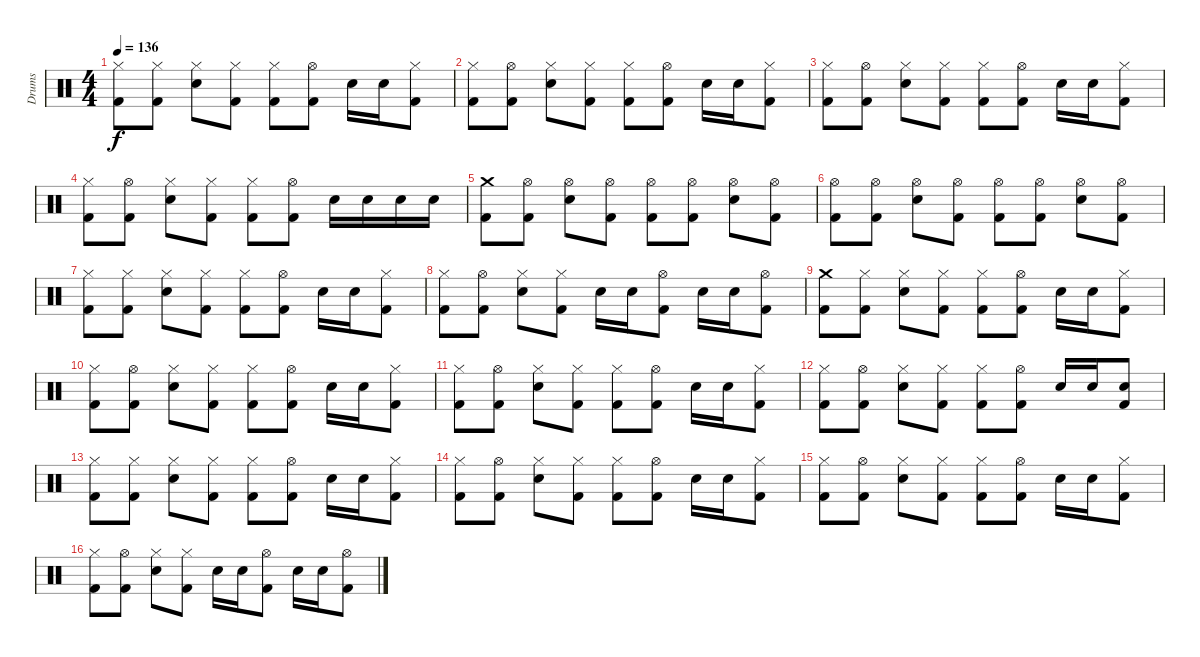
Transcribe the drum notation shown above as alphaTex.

\track ("Drums" "Drums") {instrument percussion}
\staff {score}
\articulation defaults
\ts (4 4)
\tempo 136
\clef neutral
\ks c
("Hi-Hat (closed)" "Kick (hit) 2").8{dy f} ("Hi-Hat (closed)" "Kick (hit) 2").8 ("Hi-Hat (closed)" "Electric Snare (hit)").8 ("Hi-Hat (closed)" "Kick (hit) 2").8 ("Hi-Hat (closed)" "Kick (hit) 2").8 ("Hi-Hat (open)" "Kick (hit) 2").8 "Electric Snare (hit)".16 "Electric Snare (hit)".16 ("Hi-Hat (closed)" "Kick (hit) 2").8 |
("Hi-Hat (closed)" "Kick (hit) 2").8 ("Hi-Hat (open)" "Kick (hit) 2").8 ("Hi-Hat (closed)" "Electric Snare (hit)").8 ("Hi-Hat (closed)" "Kick (hit) 2").8 ("Hi-Hat (closed)" "Kick (hit) 2").8 ("Hi-Hat (open)" "Kick (hit) 2").8 "Electric Snare (hit)".16 "Electric Snare (hit)".16 ("Hi-Hat (closed)" "Kick (hit) 2").8 |
("Hi-Hat (closed)" "Kick (hit) 2").8 ("Hi-Hat (open)" "Kick (hit) 2").8 ("Hi-Hat (closed)" "Electric Snare (hit)").8 ("Hi-Hat (closed)" "Kick (hit) 2").8 ("Hi-Hat (closed)" "Kick (hit) 2").8 ("Hi-Hat (open)" "Kick (hit) 2").8 "Electric Snare (hit)".16 "Electric Snare (hit)".16 ("Hi-Hat (closed)" "Kick (hit) 2").8 |
("Hi-Hat (closed)" "Kick (hit) 2").8 ("Hi-Hat (open)" "Kick (hit) 2").8 ("Hi-Hat (closed)" "Electric Snare (hit)").8 ("Hi-Hat (closed)" "Kick (hit) 2").8 ("Hi-Hat (closed)" "Kick (hit) 2").8 ("Hi-Hat (open)" "Kick (hit) 2").8 "Electric Snare (hit)".16 "Electric Snare (hit)".16 "Electric Snare (hit)".16 "Electric Snare (hit)".16 |
("Crash medium (hit)" "Kick (hit) 2").8 ("Hi-Hat (open)" "Kick (hit) 2").8 ("Hi-Hat (open)" "Electric Snare (hit)").8 ("Hi-Hat (open)" "Kick (hit) 2").8 ("Hi-Hat (open)" "Kick (hit) 2").8 ("Hi-Hat (open)" "Kick (hit) 2").8 ("Hi-Hat (open)" "Electric Snare (hit)").8 ("Hi-Hat (open)" "Kick (hit) 2").8 |
("Hi-Hat (open)" "Kick (hit) 2").8 ("Hi-Hat (open)" "Kick (hit) 2").8 ("Hi-Hat (open)" "Electric Snare (hit)").8 ("Hi-Hat (open)" "Kick (hit) 2").8 ("Hi-Hat (open)" "Kick (hit) 2").8 ("Hi-Hat (open)" "Kick (hit) 2").8 ("Hi-Hat (open)" "Electric Snare (hit)").8 ("Hi-Hat (open)" "Kick (hit) 2").8 |
("Hi-Hat (closed)" "Kick (hit) 2").8 ("Hi-Hat (closed)" "Kick (hit) 2").8 ("Hi-Hat (closed)" "Electric Snare (hit)").8 ("Hi-Hat (closed)" "Kick (hit) 2").8 ("Hi-Hat (closed)" "Kick (hit) 2").8 ("Hi-Hat (open)" "Kick (hit) 2").8 "Electric Snare (hit)".16 "Electric Snare (hit)".16 ("Hi-Hat (closed)" "Kick (hit) 2").8 |
("Hi-Hat (closed)" "Kick (hit) 2").8 ("Hi-Hat (open)" "Kick (hit) 2").8 ("Hi-Hat (closed)" "Electric Snare (hit)").8 ("Hi-Hat (closed)" "Kick (hit) 2").8 "Electric Snare (hit)".16 "Electric Snare (hit)".16 ("Hi-Hat (open)" "Kick (hit) 2").8 "Electric Snare (hit)".16 "Electric Snare (hit)".16 ("Hi-Hat (open)" "Kick (hit) 2").8 |
("Crash medium (hit)" "Kick (hit) 2").8 ("Hi-Hat (closed)" "Kick (hit) 2").8 ("Hi-Hat (closed)" "Electric Snare (hit)").8 ("Hi-Hat (closed)" "Kick (hit) 2").8 ("Hi-Hat (closed)" "Kick (hit) 2").8 ("Hi-Hat (open)" "Kick (hit) 2").8 "Electric Snare (hit)".16 "Electric Snare (hit)".16 ("Hi-Hat (closed)" "Kick (hit) 2").8 |
("Hi-Hat (closed)" "Kick (hit) 2").8 ("Hi-Hat (open)" "Kick (hit) 2").8 ("Hi-Hat (closed)" "Electric Snare (hit)").8 ("Hi-Hat (closed)" "Kick (hit) 2").8 ("Hi-Hat (closed)" "Kick (hit) 2").8 ("Hi-Hat (open)" "Kick (hit) 2").8 "Electric Snare (hit)".16 "Electric Snare (hit)".16 ("Hi-Hat (closed)" "Kick (hit) 2").8 |
("Hi-Hat (closed)" "Kick (hit) 2").8 ("Hi-Hat (open)" "Kick (hit) 2").8 ("Hi-Hat (closed)" "Electric Snare (hit)").8 ("Hi-Hat (closed)" "Kick (hit) 2").8 ("Hi-Hat (closed)" "Kick (hit) 2").8 ("Hi-Hat (open)" "Kick (hit) 2").8 "Electric Snare (hit)".16 "Electric Snare (hit)".16 ("Hi-Hat (closed)" "Kick (hit) 2").8 |
("Hi-Hat (closed)" "Kick (hit) 2").8 ("Hi-Hat (open)" "Kick (hit) 2").8 ("Hi-Hat (closed)" "Electric Snare (hit)").8 ("Hi-Hat (closed)" "Kick (hit) 2").8 ("Hi-Hat (closed)" "Kick (hit) 2").8 ("Hi-Hat (open)" "Kick (hit) 2").8 "Electric Snare (hit)".16 "Electric Snare (hit)".16 ("Electric Snare (hit)" "Kick (hit) 2").8 |
("Hi-Hat (closed)" "Kick (hit) 2").8 ("Hi-Hat (closed)" "Kick (hit) 2").8 ("Hi-Hat (closed)" "Electric Snare (hit)").8 ("Hi-Hat (closed)" "Kick (hit) 2").8 ("Hi-Hat (closed)" "Kick (hit) 2").8 ("Hi-Hat (open)" "Kick (hit) 2").8 "Electric Snare (hit)".16 "Electric Snare (hit)".16 ("Hi-Hat (closed)" "Kick (hit) 2").8 |
("Hi-Hat (closed)" "Kick (hit) 2").8 ("Hi-Hat (open)" "Kick (hit) 2").8 ("Hi-Hat (closed)" "Electric Snare (hit)").8 ("Hi-Hat (closed)" "Kick (hit) 2").8 ("Hi-Hat (closed)" "Kick (hit) 2").8 ("Hi-Hat (open)" "Kick (hit) 2").8 "Electric Snare (hit)".16 "Electric Snare (hit)".16 ("Hi-Hat (closed)" "Kick (hit) 2").8 |
("Hi-Hat (closed)" "Kick (hit) 2").8 ("Hi-Hat (open)" "Kick (hit) 2").8 ("Hi-Hat (closed)" "Electric Snare (hit)").8 ("Hi-Hat (closed)" "Kick (hit) 2").8 ("Hi-Hat (closed)" "Kick (hit) 2").8 ("Hi-Hat (open)" "Kick (hit) 2").8 "Electric Snare (hit)".16 "Electric Snare (hit)".16 ("Hi-Hat (closed)" "Kick (hit) 2").8 |
("Hi-Hat (closed)" "Kick (hit) 2").8 ("Hi-Hat (open)" "Kick (hit) 2").8 ("Hi-Hat (closed)" "Electric Snare (hit)").8 ("Hi-Hat (closed)" "Kick (hit) 2").8 "Electric Snare (hit)".16 "Electric Snare (hit)".16 ("Hi-Hat (open)" "Kick (hit) 2").8 "Electric Snare (hit)".16 "Electric Snare (hit)".16 ("Hi-Hat (open)" "Kick (hit) 2").8
